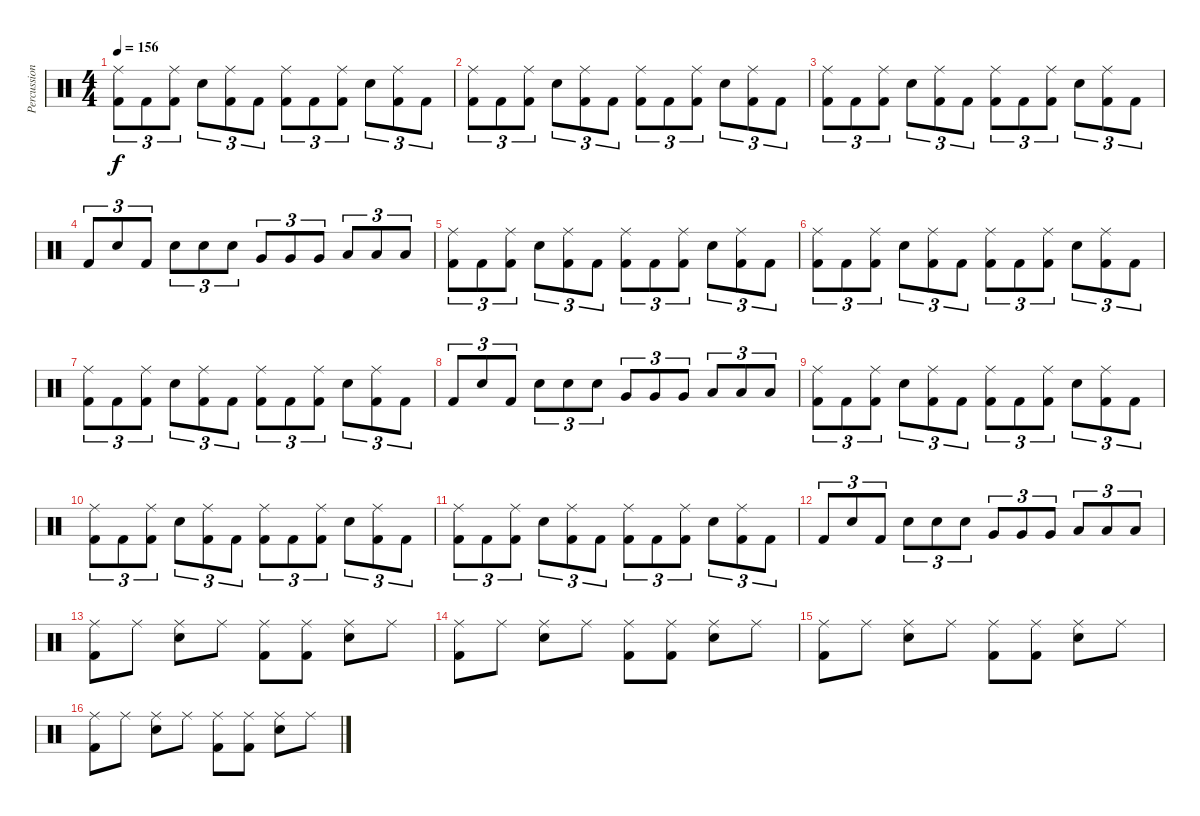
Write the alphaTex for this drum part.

\track ("Percussion" "Percussion") {instrument percussion}
\staff {score}
\articulation defaults
\ts (4 4)
\tempo 156
\clef neutral
\ks c
("Ride (middle)" "Kick (hit) 2").8{tu (3 2) dy f} "Kick (hit) 2".8{tu (3 2)} ("Ride (middle)" "Kick (hit) 2").8{tu (3 2)} "Electric Snare (hit)".8{tu (3 2)} ("Ride (middle)" "Kick (hit) 2").8{tu (3 2)} "Kick (hit) 2".8{tu (3 2)} ("Ride (middle)" "Kick (hit) 2").8{tu (3 2)} "Kick (hit) 2".8{tu (3 2)} ("Ride (middle)" "Kick (hit) 2").8{tu (3 2)} "Electric Snare (hit)".8{tu (3 2)} ("Ride (middle)" "Kick (hit) 2").8{tu (3 2)} "Kick (hit) 2".8{tu (3 2)} |
("Ride (middle)" "Kick (hit) 2").8{tu (3 2)} "Kick (hit) 2".8{tu (3 2)} ("Ride (middle)" "Kick (hit) 2").8{tu (3 2)} "Electric Snare (hit)".8{tu (3 2)} ("Ride (middle)" "Kick (hit) 2").8{tu (3 2)} "Kick (hit) 2".8{tu (3 2)} ("Ride (middle)" "Kick (hit) 2").8{tu (3 2)} "Kick (hit) 2".8{tu (3 2)} ("Ride (middle)" "Kick (hit) 2").8{tu (3 2)} "Electric Snare (hit)".8{tu (3 2)} ("Ride (middle)" "Kick (hit) 2").8{tu (3 2)} "Kick (hit) 2".8{tu (3 2)} |
("Ride (middle)" "Kick (hit) 2").8{tu (3 2)} "Kick (hit) 2".8{tu (3 2)} ("Ride (middle)" "Kick (hit) 2").8{tu (3 2)} "Electric Snare (hit)".8{tu (3 2)} ("Ride (middle)" "Kick (hit) 2").8{tu (3 2)} "Kick (hit) 2".8{tu (3 2)} ("Ride (middle)" "Kick (hit) 2").8{tu (3 2)} "Kick (hit) 2".8{tu (3 2)} ("Ride (middle)" "Kick (hit) 2").8{tu (3 2)} "Electric Snare (hit)".8{tu (3 2)} ("Ride (middle)" "Kick (hit) 2").8{tu (3 2)} "Kick (hit) 2".8{tu (3 2)} |
"Kick (hit) 2".8{tu (3 2)} "Electric Snare (hit)".8{tu (3 2)} "Kick (hit) 2".8{tu (3 2)} "Electric Snare (hit)".8{tu (3 2)} "Electric Snare (hit)".8{tu (3 2)} "Electric Snare (hit)".8{tu (3 2)} "Very Low Tom (hit)".8{tu (3 2)} "Very Low Tom (hit)".8{tu (3 2)} "Very Low Tom (hit)".8{tu (3 2)} "Low Floor Tom (hit)".8{tu (3 2)} "Low Floor Tom (hit)".8{tu (3 2)} "Low Floor Tom (hit)".8{tu (3 2)} |
("Ride (middle)" "Kick (hit) 2").8{tu (3 2)} "Kick (hit) 2".8{tu (3 2)} ("Ride (middle)" "Kick (hit) 2").8{tu (3 2)} "Electric Snare (hit)".8{tu (3 2)} ("Ride (middle)" "Kick (hit) 2").8{tu (3 2)} "Kick (hit) 2".8{tu (3 2)} ("Ride (middle)" "Kick (hit) 2").8{tu (3 2)} "Kick (hit) 2".8{tu (3 2)} ("Ride (middle)" "Kick (hit) 2").8{tu (3 2)} "Electric Snare (hit)".8{tu (3 2)} ("Ride (middle)" "Kick (hit) 2").8{tu (3 2)} "Kick (hit) 2".8{tu (3 2)} |
("Ride (middle)" "Kick (hit) 2").8{tu (3 2)} "Kick (hit) 2".8{tu (3 2)} ("Ride (middle)" "Kick (hit) 2").8{tu (3 2)} "Electric Snare (hit)".8{tu (3 2)} ("Ride (middle)" "Kick (hit) 2").8{tu (3 2)} "Kick (hit) 2".8{tu (3 2)} ("Ride (middle)" "Kick (hit) 2").8{tu (3 2)} "Kick (hit) 2".8{tu (3 2)} ("Ride (middle)" "Kick (hit) 2").8{tu (3 2)} "Electric Snare (hit)".8{tu (3 2)} ("Ride (middle)" "Kick (hit) 2").8{tu (3 2)} "Kick (hit) 2".8{tu (3 2)} |
("Ride (middle)" "Kick (hit) 2").8{tu (3 2)} "Kick (hit) 2".8{tu (3 2)} ("Ride (middle)" "Kick (hit) 2").8{tu (3 2)} "Electric Snare (hit)".8{tu (3 2)} ("Ride (middle)" "Kick (hit) 2").8{tu (3 2)} "Kick (hit) 2".8{tu (3 2)} ("Ride (middle)" "Kick (hit) 2").8{tu (3 2)} "Kick (hit) 2".8{tu (3 2)} ("Ride (middle)" "Kick (hit) 2").8{tu (3 2)} "Electric Snare (hit)".8{tu (3 2)} ("Ride (middle)" "Kick (hit) 2").8{tu (3 2)} "Kick (hit) 2".8{tu (3 2)} |
"Kick (hit) 2".8{tu (3 2)} "Electric Snare (hit)".8{tu (3 2)} "Kick (hit) 2".8{tu (3 2)} "Electric Snare (hit)".8{tu (3 2)} "Electric Snare (hit)".8{tu (3 2)} "Electric Snare (hit)".8{tu (3 2)} "Very Low Tom (hit)".8{tu (3 2)} "Very Low Tom (hit)".8{tu (3 2)} "Very Low Tom (hit)".8{tu (3 2)} "Low Floor Tom (hit)".8{tu (3 2)} "Low Floor Tom (hit)".8{tu (3 2)} "Low Floor Tom (hit)".8{tu (3 2)} |
("Ride (middle)" "Kick (hit) 2").8{tu (3 2)} "Kick (hit) 2".8{tu (3 2)} ("Ride (middle)" "Kick (hit) 2").8{tu (3 2)} "Electric Snare (hit)".8{tu (3 2)} ("Ride (middle)" "Kick (hit) 2").8{tu (3 2)} "Kick (hit) 2".8{tu (3 2)} ("Ride (middle)" "Kick (hit) 2").8{tu (3 2)} "Kick (hit) 2".8{tu (3 2)} ("Ride (middle)" "Kick (hit) 2").8{tu (3 2)} "Electric Snare (hit)".8{tu (3 2)} ("Ride (middle)" "Kick (hit) 2").8{tu (3 2)} "Kick (hit) 2".8{tu (3 2)} |
("Ride (middle)" "Kick (hit) 2").8{tu (3 2)} "Kick (hit) 2".8{tu (3 2)} ("Ride (middle)" "Kick (hit) 2").8{tu (3 2)} "Electric Snare (hit)".8{tu (3 2)} ("Ride (middle)" "Kick (hit) 2").8{tu (3 2)} "Kick (hit) 2".8{tu (3 2)} ("Ride (middle)" "Kick (hit) 2").8{tu (3 2)} "Kick (hit) 2".8{tu (3 2)} ("Ride (middle)" "Kick (hit) 2").8{tu (3 2)} "Electric Snare (hit)".8{tu (3 2)} ("Ride (middle)" "Kick (hit) 2").8{tu (3 2)} "Kick (hit) 2".8{tu (3 2)} |
("Ride (middle)" "Kick (hit) 2").8{tu (3 2)} "Kick (hit) 2".8{tu (3 2)} ("Ride (middle)" "Kick (hit) 2").8{tu (3 2)} "Electric Snare (hit)".8{tu (3 2)} ("Ride (middle)" "Kick (hit) 2").8{tu (3 2)} "Kick (hit) 2".8{tu (3 2)} ("Ride (middle)" "Kick (hit) 2").8{tu (3 2)} "Kick (hit) 2".8{tu (3 2)} ("Ride (middle)" "Kick (hit) 2").8{tu (3 2)} "Electric Snare (hit)".8{tu (3 2)} ("Ride (middle)" "Kick (hit) 2").8{tu (3 2)} "Kick (hit) 2".8{tu (3 2)} |
"Kick (hit) 2".8{tu (3 2)} "Electric Snare (hit)".8{tu (3 2)} "Kick (hit) 2".8{tu (3 2)} "Electric Snare (hit)".8{tu (3 2)} "Electric Snare (hit)".8{tu (3 2)} "Electric Snare (hit)".8{tu (3 2)} "Very Low Tom (hit)".8{tu (3 2)} "Very Low Tom (hit)".8{tu (3 2)} "Very Low Tom (hit)".8{tu (3 2)} "Low Floor Tom (hit)".8{tu (3 2)} "Low Floor Tom (hit)".8{tu (3 2)} "Low Floor Tom (hit)".8{tu (3 2)} |
("Ride (middle)" "Kick (hit) 2").8 "Ride (middle)".8 ("Ride (middle)" "Snare (hit) 2").8 "Ride (middle)".8 ("Ride (middle)" "Kick (hit) 2").8 ("Ride (middle)" "Kick (hit) 2").8 ("Ride (middle)" "Snare (hit) 2").8 "Ride (middle)".8 |
("Ride (middle)" "Kick (hit) 2").8 "Ride (middle)".8 ("Ride (middle)" "Snare (hit) 2").8 "Ride (middle)".8 ("Ride (middle)" "Kick (hit) 2").8 ("Ride (middle)" "Kick (hit) 2").8 ("Ride (middle)" "Snare (hit) 2").8 "Ride (middle)".8 |
("Ride (middle)" "Kick (hit) 2").8 "Ride (middle)".8 ("Ride (middle)" "Snare (hit) 2").8 "Ride (middle)".8 ("Ride (middle)" "Kick (hit) 2").8 ("Ride (middle)" "Kick (hit) 2").8 ("Ride (middle)" "Snare (hit) 2").8 "Ride (middle)".8 |
("Ride (middle)" "Kick (hit) 2").8 "Ride (middle)".8 ("Ride (middle)" "Snare (hit) 2").8 "Ride (middle)".8 ("Ride (middle)" "Kick (hit) 2").8 ("Ride (middle)" "Kick (hit) 2").8 ("Ride (middle)" "Snare (hit) 2").8 "Ride (middle)".8
